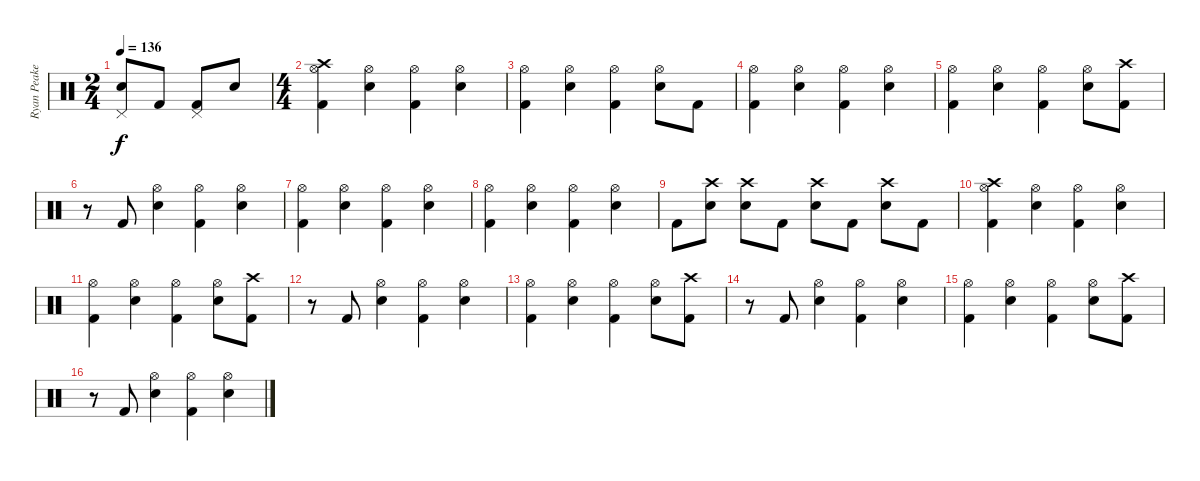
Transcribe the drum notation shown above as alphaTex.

\track ("Ryan Peake" "Ryan Peake") {instrument percussion}
\staff {score}
\articulation defaults
\ts (2 4)
\tempo 136
\clef neutral
\ks c
("Snare (hit) 2" "Pedal Hi-Hat (hit)").8{dy f} "Kick (hit) 2".8 ("Kick (hit) 2" "Pedal Hi-Hat (hit)").8 "Snare (hit) 2".8 |
\ts (4 4)
("Kick (hit) 2" "Hi-Hat (open)" "Crash high (hit)").4 ("Snare (hit) 2" "Hi-Hat (open)").4 ("Kick (hit) 2" "Hi-Hat (open)").4 ("Snare (hit) 2" "Hi-Hat (open)").4 |
("Kick (hit) 2" "Hi-Hat (open)").4 ("Snare (hit) 2" "Hi-Hat (open)").4 ("Kick (hit) 2" "Hi-Hat (open)").4 ("Snare (hit) 2" "Hi-Hat (open)").8 "Kick (hit) 2".8 |
("Kick (hit) 2" "Hi-Hat (open)").4 ("Snare (hit) 2" "Hi-Hat (open)").4 ("Kick (hit) 2" "Hi-Hat (open)").4 ("Snare (hit) 2" "Hi-Hat (open)").4 |
("Kick (hit) 2" "Hi-Hat (open)").4 ("Snare (hit) 2" "Hi-Hat (open)").4 ("Kick (hit) 2" "Hi-Hat (open)").4 ("Snare (hit) 2" "Hi-Hat (open)").8 ("Kick (hit) 2" "Crash high (hit)").8 |
r.8 "Kick (hit) 2".8 ("Snare (hit) 2" "Hi-Hat (open)").4 ("Kick (hit) 2" "Hi-Hat (open)").4 ("Snare (hit) 2" "Hi-Hat (open)").4 |
("Kick (hit) 2" "Hi-Hat (open)").4 ("Snare (hit) 2" "Hi-Hat (open)").4 ("Kick (hit) 2" "Hi-Hat (open)").4 ("Snare (hit) 2" "Hi-Hat (open)").4 |
("Kick (hit) 2" "Hi-Hat (open)").4 ("Snare (hit) 2" "Hi-Hat (open)").4 ("Kick (hit) 2" "Hi-Hat (open)").4 ("Snare (hit) 2" "Hi-Hat (open)").4 |
"Kick (hit) 2".8 ("Snare (hit) 2" "Crash high (hit)").8 ("Snare (hit) 2" "Crash high (hit)").8 "Kick (hit) 2".8 ("Snare (hit) 2" "Crash high (hit)").8 "Kick (hit) 2".8 ("Snare (hit) 2" "Crash high (hit)").8 "Kick (hit) 2".8 |
("Kick (hit) 2" "Hi-Hat (open)" "Crash high (hit)").4 ("Snare (hit) 2" "Hi-Hat (open)").4 ("Kick (hit) 2" "Hi-Hat (open)").4 ("Snare (hit) 2" "Hi-Hat (open)").4 |
("Kick (hit) 2" "Hi-Hat (open)").4 ("Snare (hit) 2" "Hi-Hat (open)").4 ("Kick (hit) 2" "Hi-Hat (open)").4 ("Snare (hit) 2" "Hi-Hat (open)").8 ("Kick (hit) 2" "Crash high (hit)").8 |
r.8 "Kick (hit) 2".8 ("Snare (hit) 2" "Hi-Hat (open)").4 ("Kick (hit) 2" "Hi-Hat (open)").4 ("Snare (hit) 2" "Hi-Hat (open)").4 |
("Kick (hit) 2" "Hi-Hat (open)").4 ("Snare (hit) 2" "Hi-Hat (open)").4 ("Kick (hit) 2" "Hi-Hat (open)").4 ("Snare (hit) 2" "Hi-Hat (open)").8 ("Kick (hit) 2" "Crash high (hit)").8 |
r.8 "Kick (hit) 2".8 ("Snare (hit) 2" "Hi-Hat (open)").4 ("Kick (hit) 2" "Hi-Hat (open)").4 ("Snare (hit) 2" "Hi-Hat (open)").4 |
("Kick (hit) 2" "Hi-Hat (open)").4 ("Snare (hit) 2" "Hi-Hat (open)").4 ("Kick (hit) 2" "Hi-Hat (open)").4 ("Snare (hit) 2" "Hi-Hat (open)").8 ("Kick (hit) 2" "Crash high (hit)").8 |
r.8 "Kick (hit) 2".8 ("Snare (hit) 2" "Hi-Hat (open)").4 ("Kick (hit) 2" "Hi-Hat (open)").4 ("Snare (hit) 2" "Hi-Hat (open)").4
